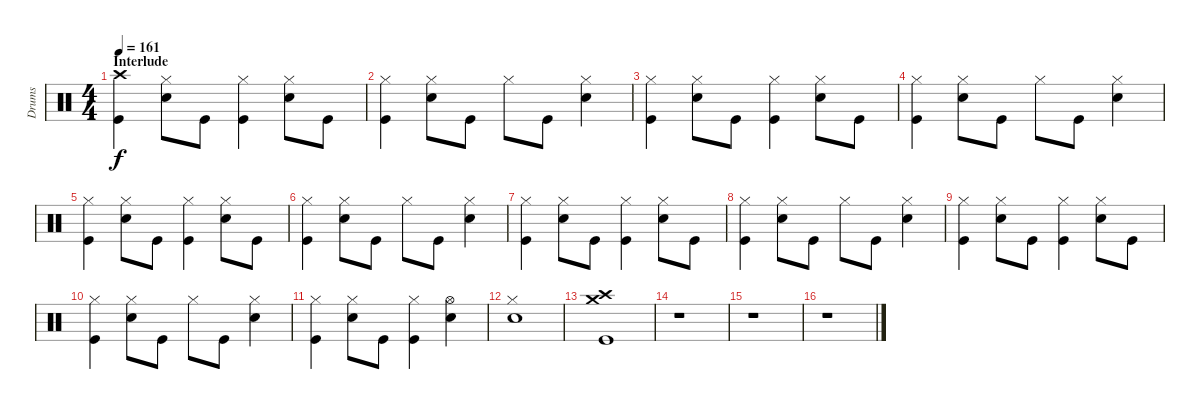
\track ("Drums" "Drums") {instrument percussion}
\staff {score}
\articulation defaults
\ts (4 4)
\section ("" "Interlude")
\tempo 161
\clef neutral
\ks c
("Crash high (hit)" "Kick (hit)").4{dy f} ("Hi-Hat (closed)" "Electric Snare (hit)").8 "Kick (hit)".8 ("Hi-Hat (closed)" "Kick (hit)").4 ("Hi-Hat (closed)" "Electric Snare (hit)").8 "Kick (hit)".8 |
("Hi-Hat (closed)" "Kick (hit)").4 ("Hi-Hat (closed)" "Electric Snare (hit)").8 "Kick (hit)".8 "Hi-Hat (closed)".8 "Kick (hit)".8 ("Hi-Hat (closed)" "Electric Snare (hit)").4 |
("Hi-Hat (closed)" "Kick (hit)").4 ("Hi-Hat (closed)" "Electric Snare (hit)").8 "Kick (hit)".8 ("Hi-Hat (closed)" "Kick (hit)").4 ("Hi-Hat (closed)" "Electric Snare (hit)").8 "Kick (hit)".8 |
("Hi-Hat (closed)" "Kick (hit)").4 ("Hi-Hat (closed)" "Electric Snare (hit)").8 "Kick (hit)".8 "Hi-Hat (closed)".8 "Kick (hit)".8 ("Hi-Hat (closed)" "Electric Snare (hit)").4 |
("Hi-Hat (closed)" "Kick (hit)").4 ("Hi-Hat (closed)" "Electric Snare (hit)").8 "Kick (hit)".8 ("Hi-Hat (closed)" "Kick (hit)").4 ("Hi-Hat (closed)" "Electric Snare (hit)").8 "Kick (hit)".8 |
("Hi-Hat (closed)" "Kick (hit)").4 ("Hi-Hat (closed)" "Electric Snare (hit)").8 "Kick (hit)".8 "Hi-Hat (closed)".8 "Kick (hit)".8 ("Hi-Hat (closed)" "Electric Snare (hit)").4 |
("Hi-Hat (closed)" "Kick (hit)").4 ("Hi-Hat (closed)" "Electric Snare (hit)").8 "Kick (hit)".8 ("Hi-Hat (closed)" "Kick (hit)").4 ("Hi-Hat (closed)" "Electric Snare (hit)").8 "Kick (hit)".8 |
("Hi-Hat (closed)" "Kick (hit)").4 ("Hi-Hat (closed)" "Electric Snare (hit)").8 "Kick (hit)".8 "Hi-Hat (closed)".8 "Kick (hit)".8 ("Hi-Hat (closed)" "Electric Snare (hit)").4 |
("Hi-Hat (closed)" "Kick (hit)").4 ("Hi-Hat (closed)" "Electric Snare (hit)").8 "Kick (hit)".8 ("Hi-Hat (closed)" "Kick (hit)").4 ("Hi-Hat (closed)" "Electric Snare (hit)").8 "Kick (hit)".8 |
("Hi-Hat (closed)" "Kick (hit)").4 ("Hi-Hat (closed)" "Electric Snare (hit)").8 "Kick (hit)".8 "Hi-Hat (closed)".8 "Kick (hit)".8 ("Hi-Hat (closed)" "Electric Snare (hit)").4 |
("Hi-Hat (closed)" "Kick (hit)").4 ("Hi-Hat (closed)" "Electric Snare (hit)").8 "Kick (hit)".8 ("Hi-Hat (closed)" "Kick (hit)").4 ("Hi-Hat (open)" "Electric Snare (hit)").4 |
("Hi-Hat (closed)" "Electric Snare (hit)").1 |
("Crash high (hit)" "Crash medium (hit)" "Kick (hit)").1 |
r.1 |
r.1 |
r.1
